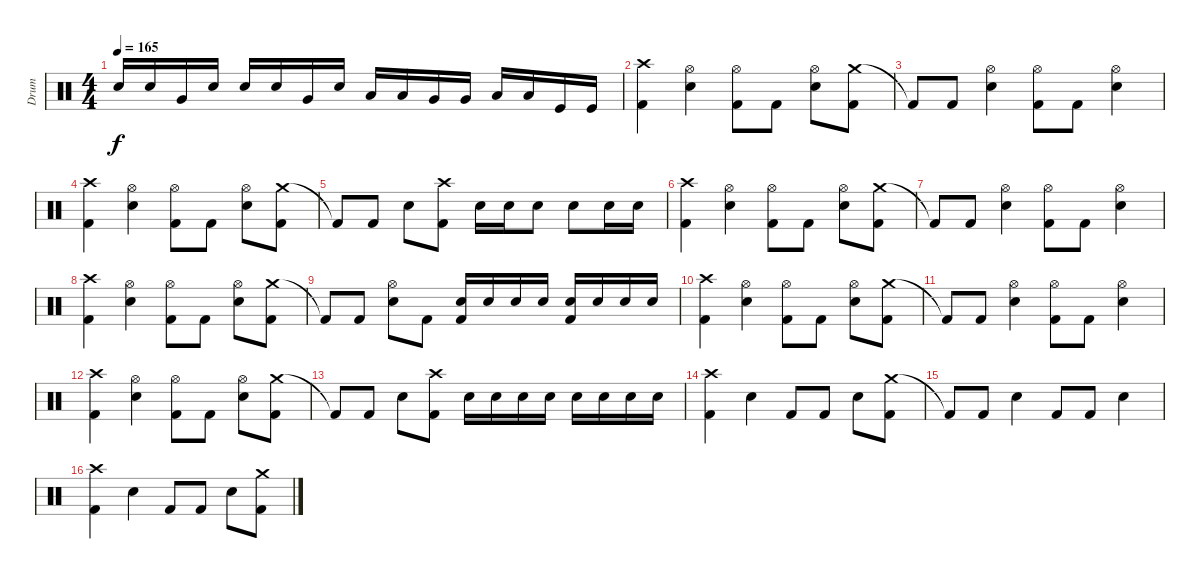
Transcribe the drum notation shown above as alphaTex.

\track ("Drum" "Drum") {instrument percussion}
\staff {score}
\articulation defaults
\ts (4 4)
\tempo 165
\clef neutral
\ks c "Electric Snare (hit)"{t}.16{dy f} "Electric Snare (hit)".16 "Very Low Tom (hit)".16 "Electric Snare (hit)".16 "Electric Snare (hit)".16 "Electric Snare (hit)".16 "Very Low Tom (hit)".16 "Electric Snare (hit)".16 "Low Tom (hit)".16 "Low Tom (hit)".16 "Very Low Tom (hit)".16 "Very Low Tom (hit)".16 "Low Floor Tom (hit)".16 "Low Floor Tom (hit)".16 "Kick (hit)".16 "Kick (hit)".16
|
("Crash high (hit)" "Kick (hit) 2").4 ("Hi-Hat (open)" "Electric Snare (hit)").4 ("Hi-Hat (open)" "Kick (hit) 2").8 "Kick (hit) 2".8 ("Hi-Hat (open)" "Electric Snare (hit)").8 ("Crash medium (hit)" "Kick (hit) 2").8 |
"Kick (hit) 2"{t}.8 "Kick (hit) 2".8 ("Hi-Hat (open)" "Electric Snare (hit)").4 ("Hi-Hat (open)" "Kick (hit) 2").8 "Kick (hit) 2".8 ("Hi-Hat (open)" "Electric Snare (hit)").4 |
("Crash high (hit)" "Kick (hit) 2").4 ("Hi-Hat (open)" "Electric Snare (hit)").4 ("Hi-Hat (open)" "Kick (hit) 2").8 "Kick (hit) 2".8 ("Hi-Hat (open)" "Electric Snare (hit)").8 ("Crash medium (hit)" "Kick (hit) 2").8 |
"Kick (hit) 2"{t}.8 "Kick (hit) 2".8 "Electric Snare (hit)".8 ("Crash high (hit)" "Kick (hit) 2").8 "Electric Snare (hit)".16 "Electric Snare (hit)".16 "Electric Snare (hit)".8 "Electric Snare (hit)".8 "Electric Snare (hit)".16 "Electric Snare (hit)".16 |
("Crash high (hit)" "Kick (hit) 2").4 ("Hi-Hat (open)" "Electric Snare (hit)").4 ("Hi-Hat (open)" "Kick (hit) 2").8 "Kick (hit) 2".8 ("Hi-Hat (open)" "Electric Snare (hit)").8 ("Crash medium (hit)" "Kick (hit) 2").8 |
"Kick (hit) 2"{t}.8 "Kick (hit) 2".8 ("Hi-Hat (open)" "Electric Snare (hit)").4 ("Hi-Hat (open)" "Kick (hit) 2").8 "Kick (hit) 2".8 ("Hi-Hat (open)" "Electric Snare (hit)").4 |
("Crash high (hit)" "Kick (hit) 2").4 ("Hi-Hat (open)" "Electric Snare (hit)").4 ("Hi-Hat (open)" "Kick (hit) 2").8 "Kick (hit) 2".8 ("Hi-Hat (open)" "Electric Snare (hit)").8 ("Crash medium (hit)" "Kick (hit) 2").8 |
"Kick (hit) 2"{t}.8 "Kick (hit) 2".8 ("Hi-Hat (open)" "Electric Snare (hit)").8 "Kick (hit) 2".8 ("Electric Snare (hit)" "Kick (hit) 2").16 "Electric Snare (hit)".16 "Electric Snare (hit)".16 "Electric Snare (hit)".16 ("Electric Snare (hit)" "Kick (hit) 2").16 "Electric Snare (hit)".16 "Electric Snare (hit)".16 "Electric Snare (hit)".16 |
("Crash high (hit)" "Kick (hit) 2").4 ("Hi-Hat (open)" "Electric Snare (hit)").4 ("Hi-Hat (open)" "Kick (hit) 2").8 "Kick (hit) 2".8 ("Hi-Hat (open)" "Electric Snare (hit)").8 ("Crash medium (hit)" "Kick (hit) 2").8 |
"Kick (hit) 2"{t}.8 "Kick (hit) 2".8 ("Hi-Hat (open)" "Electric Snare (hit)").4 ("Hi-Hat (open)" "Kick (hit) 2").8 "Kick (hit) 2".8 ("Hi-Hat (open)" "Electric Snare (hit)").4 |
("Crash high (hit)" "Kick (hit) 2").4 ("Hi-Hat (open)" "Electric Snare (hit)").4 ("Hi-Hat (open)" "Kick (hit) 2").8 "Kick (hit) 2".8 ("Hi-Hat (open)" "Electric Snare (hit)").8 ("Crash medium (hit)" "Kick (hit) 2").8 |
"Kick (hit) 2"{t}.8 "Kick (hit) 2".8 "Electric Snare (hit)".8 ("Crash high (hit)" "Kick (hit) 2").8 "Electric Snare (hit)".16 "Electric Snare (hit)".16 "Electric Snare (hit)".16 "Electric Snare (hit)".16 "Electric Snare (hit)".16 "Electric Snare (hit)".16 "Electric Snare (hit)".16 "Electric Snare (hit)".16 |
("Crash high (hit)" "Kick (hit) 2").4 "Electric Snare (hit)".4 "Kick (hit) 2".8 "Kick (hit) 2".8 "Electric Snare (hit)".8 ("Crash medium (hit)" "Kick (hit) 2").8 |
"Kick (hit) 2"{t}.8 "Kick (hit) 2".8 "Electric Snare (hit)".4 "Kick (hit) 2".8 "Kick (hit) 2".8 "Electric Snare (hit)".4 |
("Crash high (hit)" "Kick (hit) 2").4 "Electric Snare (hit)".4 "Kick (hit) 2".8 "Kick (hit) 2".8 "Electric Snare (hit)".8 ("Crash medium (hit)" "Kick (hit) 2").8
